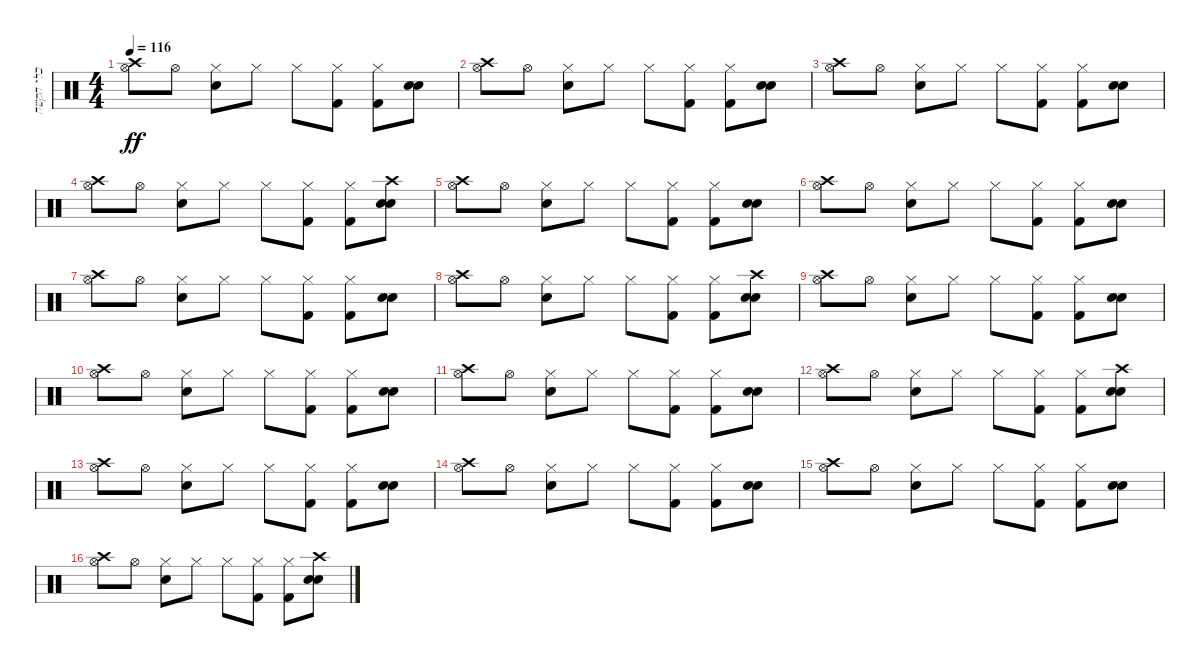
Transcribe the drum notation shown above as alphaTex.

\track ("כלי הקשה" "כלי הקשה") {instrument percussion}
\staff {score}
\articulation defaults
\ts (4 4)
\tempo 116
\clef neutral
\ks c
("Hi-Hat (open)" "Crash high (hit)").8{dy ff} "Hi-Hat (open)".8 ("Hi-Hat (closed)" "Snare (hit) 2").8 "Hi-Hat (closed)".8 "Hi-Hat (closed)".8 ("Hi-Hat (closed)" "Kick (hit) 2").8 ("Hi-Hat (closed)" "Kick (hit) 2").8 ("Electric Snare (hit)" "Snare (hit) 2").8 |
("Hi-Hat (open)" "Crash high (hit)").8 "Hi-Hat (open)".8 ("Hi-Hat (closed)" "Snare (hit) 2").8 "Hi-Hat (closed)".8 "Hi-Hat (closed)".8 ("Hi-Hat (closed)" "Kick (hit) 2").8 ("Hi-Hat (closed)" "Kick (hit) 2").8 ("Electric Snare (hit)" "Snare (hit) 2").8 |
("Hi-Hat (open)" "Crash high (hit)").8 "Hi-Hat (open)".8 ("Hi-Hat (closed)" "Snare (hit) 2").8 "Hi-Hat (closed)".8 "Hi-Hat (closed)".8 ("Hi-Hat (closed)" "Kick (hit) 2").8 ("Hi-Hat (closed)" "Kick (hit) 2").8 ("Electric Snare (hit)" "Snare (hit) 2").8 |
("Hi-Hat (open)" "Crash high (hit)").8 "Hi-Hat (open)".8 ("Hi-Hat (closed)" "Snare (hit) 2").8 "Hi-Hat (closed)".8 "Hi-Hat (closed)".8 ("Hi-Hat (closed)" "Kick (hit) 2").8 ("Hi-Hat (closed)" "Kick (hit) 2").8 ("Crash high (hit)" "Electric Snare (hit)" "Snare (hit) 2").8 |
("Hi-Hat (open)" "Crash high (hit)").8 "Hi-Hat (open)".8 ("Hi-Hat (closed)" "Snare (hit) 2").8 "Hi-Hat (closed)".8 "Hi-Hat (closed)".8 ("Hi-Hat (closed)" "Kick (hit) 2").8 ("Hi-Hat (closed)" "Kick (hit) 2").8 ("Electric Snare (hit)" "Snare (hit) 2").8 |
("Hi-Hat (open)" "Crash high (hit)").8 "Hi-Hat (open)".8 ("Hi-Hat (closed)" "Snare (hit) 2").8 "Hi-Hat (closed)".8 "Hi-Hat (closed)".8 ("Hi-Hat (closed)" "Kick (hit) 2").8 ("Hi-Hat (closed)" "Kick (hit) 2").8 ("Electric Snare (hit)" "Snare (hit) 2").8 |
("Hi-Hat (open)" "Crash high (hit)").8 "Hi-Hat (open)".8 ("Hi-Hat (closed)" "Snare (hit) 2").8 "Hi-Hat (closed)".8 "Hi-Hat (closed)".8 ("Hi-Hat (closed)" "Kick (hit) 2").8 ("Hi-Hat (closed)" "Kick (hit) 2").8 ("Electric Snare (hit)" "Snare (hit) 2").8 |
("Hi-Hat (open)" "Crash high (hit)").8 "Hi-Hat (open)".8 ("Hi-Hat (closed)" "Snare (hit) 2").8 "Hi-Hat (closed)".8 "Hi-Hat (closed)".8 ("Hi-Hat (closed)" "Kick (hit) 2").8 ("Hi-Hat (closed)" "Kick (hit) 2").8 ("Crash high (hit)" "Electric Snare (hit)" "Snare (hit) 2").8 |
("Hi-Hat (open)" "Crash high (hit)").8 "Hi-Hat (open)".8 ("Hi-Hat (closed)" "Snare (hit) 2").8 "Hi-Hat (closed)".8 "Hi-Hat (closed)".8 ("Hi-Hat (closed)" "Kick (hit) 2").8 ("Hi-Hat (closed)" "Kick (hit) 2").8 ("Electric Snare (hit)" "Snare (hit) 2").8 |
("Hi-Hat (open)" "Crash high (hit)").8 "Hi-Hat (open)".8 ("Hi-Hat (closed)" "Snare (hit) 2").8 "Hi-Hat (closed)".8 "Hi-Hat (closed)".8 ("Hi-Hat (closed)" "Kick (hit) 2").8 ("Hi-Hat (closed)" "Kick (hit) 2").8 ("Electric Snare (hit)" "Snare (hit) 2").8 |
("Hi-Hat (open)" "Crash high (hit)").8 "Hi-Hat (open)".8 ("Hi-Hat (closed)" "Snare (hit) 2").8 "Hi-Hat (closed)".8 "Hi-Hat (closed)".8 ("Hi-Hat (closed)" "Kick (hit) 2").8 ("Hi-Hat (closed)" "Kick (hit) 2").8 ("Electric Snare (hit)" "Snare (hit) 2").8 |
("Hi-Hat (open)" "Crash high (hit)").8 "Hi-Hat (open)".8 ("Hi-Hat (closed)" "Snare (hit) 2").8 "Hi-Hat (closed)".8 "Hi-Hat (closed)".8 ("Hi-Hat (closed)" "Kick (hit) 2").8 ("Hi-Hat (closed)" "Kick (hit) 2").8 ("Crash high (hit)" "Electric Snare (hit)" "Snare (hit) 2").8 |
("Hi-Hat (open)" "Crash high (hit)").8 "Hi-Hat (open)".8 ("Hi-Hat (closed)" "Snare (hit) 2").8 "Hi-Hat (closed)".8 "Hi-Hat (closed)".8 ("Hi-Hat (closed)" "Kick (hit) 2").8 ("Hi-Hat (closed)" "Kick (hit) 2").8 ("Electric Snare (hit)" "Snare (hit) 2").8 |
("Hi-Hat (open)" "Crash high (hit)").8 "Hi-Hat (open)".8 ("Hi-Hat (closed)" "Snare (hit) 2").8 "Hi-Hat (closed)".8 "Hi-Hat (closed)".8 ("Hi-Hat (closed)" "Kick (hit) 2").8 ("Hi-Hat (closed)" "Kick (hit) 2").8 ("Electric Snare (hit)" "Snare (hit) 2").8 |
("Hi-Hat (open)" "Crash high (hit)").8 "Hi-Hat (open)".8 ("Hi-Hat (closed)" "Snare (hit) 2").8 "Hi-Hat (closed)".8 "Hi-Hat (closed)".8 ("Hi-Hat (closed)" "Kick (hit) 2").8 ("Hi-Hat (closed)" "Kick (hit) 2").8 ("Electric Snare (hit)" "Snare (hit) 2").8 |
("Hi-Hat (open)" "Crash high (hit)").8 "Hi-Hat (open)".8 ("Hi-Hat (closed)" "Snare (hit) 2").8 "Hi-Hat (closed)".8 "Hi-Hat (closed)".8 ("Hi-Hat (closed)" "Kick (hit) 2").8 ("Hi-Hat (closed)" "Kick (hit) 2").8 ("Crash high (hit)" "Electric Snare (hit)" "Snare (hit) 2").8
